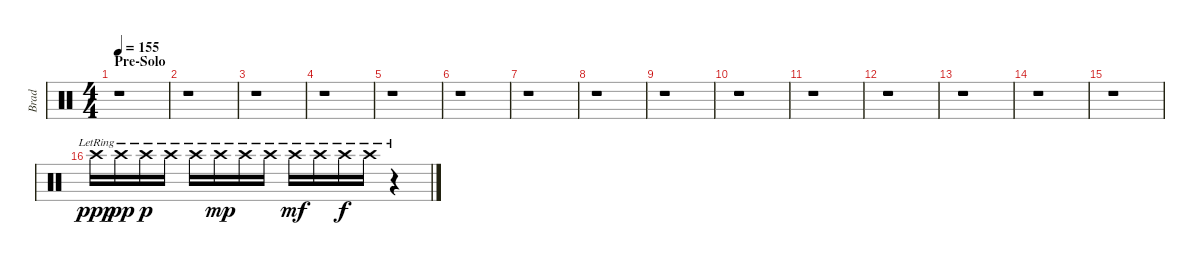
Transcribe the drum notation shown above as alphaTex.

\track ("Brad" "Brad") {instrument percussion}
\staff {score}
\articulation defaults
\ts (4 4)
\section ("" "Pre-Solo")
\tempo 155
\clef neutral
\ks c
r.1{dy f} |
r.1 |
r.1 |
r.1 |
r.1 |
r.1 |
r.1 |
r.1 |
r.1 |
r.1 |
r.1 |
r.1 |
r.1 |
r.1 |
r.1 |
"Crash high (hit)"{lr}.16{dy ppp} "Crash high (hit)"{lr}.16{dy pp} "Crash high (hit)"{lr}.16{dy p} "Crash high (hit)"{lr}.16 "Crash high (hit)"{lr}.16 "Crash high (hit)"{lr}.16{dy mp} "Crash high (hit)"{lr}.16 "Crash high (hit)"{lr}.16 "Crash high (hit)"{lr}.16{dy mf} "Crash high (hit)"{lr}.16 "Crash high (hit)"{lr}.16{dy f} "Crash high (hit)"{lr}.16 r.4
